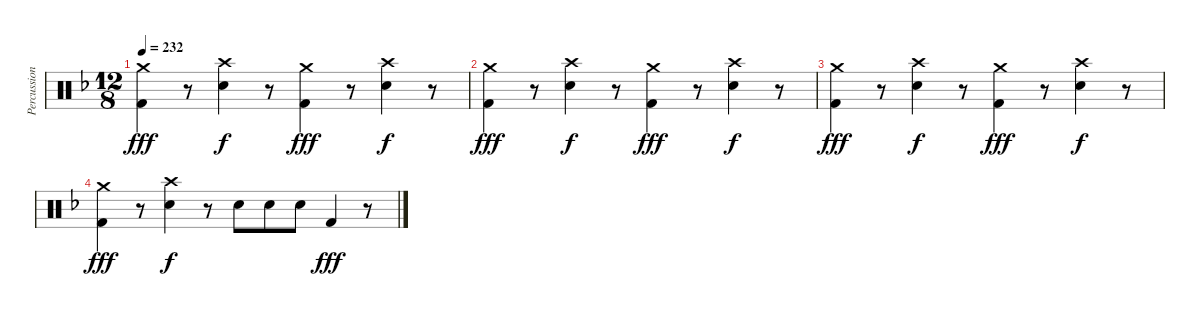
\track ("Percussions" "Percussion") {instrument percussion}
\staff {score}
\articulation defaults
\ts (12 8)
\tempo 232
\clef neutral
\ks f
("Crash medium (hit)" "Kick (hit) 2").4{dy fff} r.8 ("Crash high (hit)" "Snare (hit) 2").4{dy f} r.8 ("Crash medium (hit)" "Kick (hit) 2").4{dy fff} r.8 ("Crash high (hit)" "Snare (hit) 2").4{dy f} r.8 |
("Crash medium (hit)" "Kick (hit) 2").4{dy fff} r.8 ("Crash high (hit)" "Snare (hit) 2").4{dy f} r.8 ("Crash medium (hit)" "Kick (hit) 2").4{dy fff} r.8 ("Crash high (hit)" "Snare (hit) 2").4{dy f} r.8 |
("Crash medium (hit)" "Kick (hit) 2").4{dy fff} r.8 ("Crash high (hit)" "Snare (hit) 2").4{dy f} r.8 ("Crash medium (hit)" "Kick (hit) 2").4{dy fff} r.8 ("Crash high (hit)" "Snare (hit) 2").4{dy f} r.8 |
("Crash medium (hit)" "Kick (hit) 2").4{dy fff} r.8 ("Crash high (hit)" "Snare (hit) 2").4{dy f} r.8 "Snare (hit) 2".8 "Snare (hit) 2".8 "Snare (hit) 2".8 "Kick (hit) 2".4{dy fff} r.8
